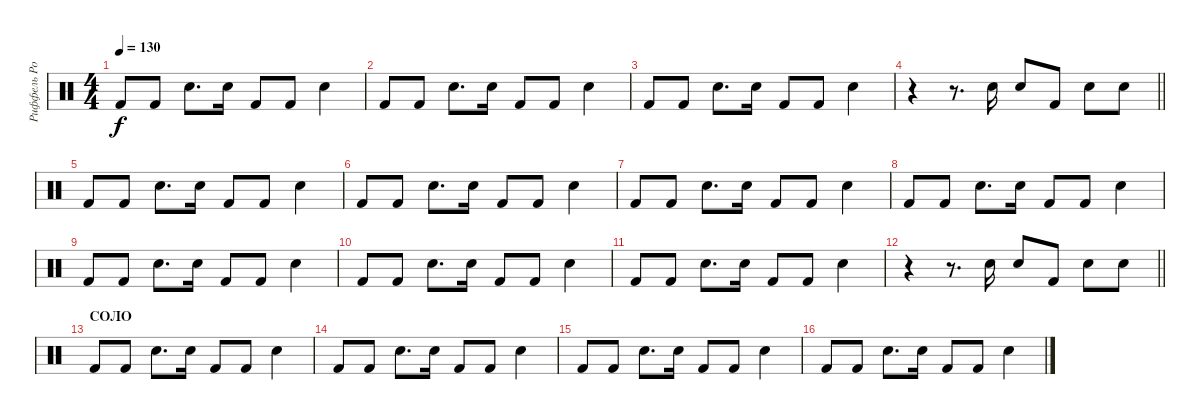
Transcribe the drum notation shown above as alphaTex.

\track ("Риффель Роман (главные)" "Риффель Ро") {instrument percussion}
\staff {score}
\articulation defaults
\ts (4 4)
\tempo 130
\clef neutral
\ks c "Kick (hit) 2".8{dy f} "Kick (hit) 2".8 "Electric Snare (hit)".8{d} "Electric Snare (hit)".16 "Kick (hit) 2".8 "Kick (hit) 2".8 "Electric Snare (hit)".4
|
"Kick (hit) 2".8 "Kick (hit) 2".8 "Electric Snare (hit)".8{d} "Electric Snare (hit)".16 "Kick (hit) 2".8 "Kick (hit) 2".8 "Electric Snare (hit)".4 |
"Kick (hit) 2".8 "Kick (hit) 2".8 "Electric Snare (hit)".8{d} "Electric Snare (hit)".16 "Kick (hit) 2".8 "Kick (hit) 2".8 "Electric Snare (hit)".4 |
\barLineRight lightlight
r.4 r.8{d} "Electric Snare (hit)".16 "Electric Snare (hit)".8 "Kick (hit) 2".8 "Electric Snare (hit)".8 "Electric Snare (hit)".8 |
"Kick (hit) 2".8 "Kick (hit) 2".8 "Electric Snare (hit)".8{d} "Electric Snare (hit)".16 "Kick (hit) 2".8 "Kick (hit) 2".8 "Electric Snare (hit)".4 |
"Kick (hit) 2".8 "Kick (hit) 2".8 "Electric Snare (hit)".8{d} "Electric Snare (hit)".16 "Kick (hit) 2".8 "Kick (hit) 2".8 "Electric Snare (hit)".4 |
"Kick (hit) 2".8 "Kick (hit) 2".8 "Electric Snare (hit)".8{d} "Electric Snare (hit)".16 "Kick (hit) 2".8 "Kick (hit) 2".8 "Electric Snare (hit)".4 |
"Kick (hit) 2".8 "Kick (hit) 2".8 "Electric Snare (hit)".8{d} "Electric Snare (hit)".16 "Kick (hit) 2".8 "Kick (hit) 2".8 "Electric Snare (hit)".4 |
"Kick (hit) 2".8 "Kick (hit) 2".8 "Electric Snare (hit)".8{d} "Electric Snare (hit)".16 "Kick (hit) 2".8 "Kick (hit) 2".8 "Electric Snare (hit)".4 |
"Kick (hit) 2".8 "Kick (hit) 2".8 "Electric Snare (hit)".8{d} "Electric Snare (hit)".16 "Kick (hit) 2".8 "Kick (hit) 2".8 "Electric Snare (hit)".4 |
"Kick (hit) 2".8 "Kick (hit) 2".8 "Electric Snare (hit)".8{d} "Electric Snare (hit)".16 "Kick (hit) 2".8 "Kick (hit) 2".8 "Electric Snare (hit)".4 |
\barLineRight lightlight
r.4 r.8{d} "Electric Snare (hit)".16 "Electric Snare (hit)".8 "Kick (hit) 2".8 "Electric Snare (hit)".8 "Electric Snare (hit)".8 |
\section ("" "СОЛО")
"Kick (hit) 2".8 "Kick (hit) 2".8 "Electric Snare (hit)".8{d} "Electric Snare (hit)".16 "Kick (hit) 2".8 "Kick (hit) 2".8 "Electric Snare (hit)".4 |
"Kick (hit) 2".8 "Kick (hit) 2".8 "Electric Snare (hit)".8{d} "Electric Snare (hit)".16 "Kick (hit) 2".8 "Kick (hit) 2".8 "Electric Snare (hit)".4 |
"Kick (hit) 2".8 "Kick (hit) 2".8 "Electric Snare (hit)".8{d} "Electric Snare (hit)".16 "Kick (hit) 2".8 "Kick (hit) 2".8 "Electric Snare (hit)".4 |
"Kick (hit) 2".8 "Kick (hit) 2".8 "Electric Snare (hit)".8{d} "Electric Snare (hit)".16 "Kick (hit) 2".8 "Kick (hit) 2".8 "Electric Snare (hit)".4
